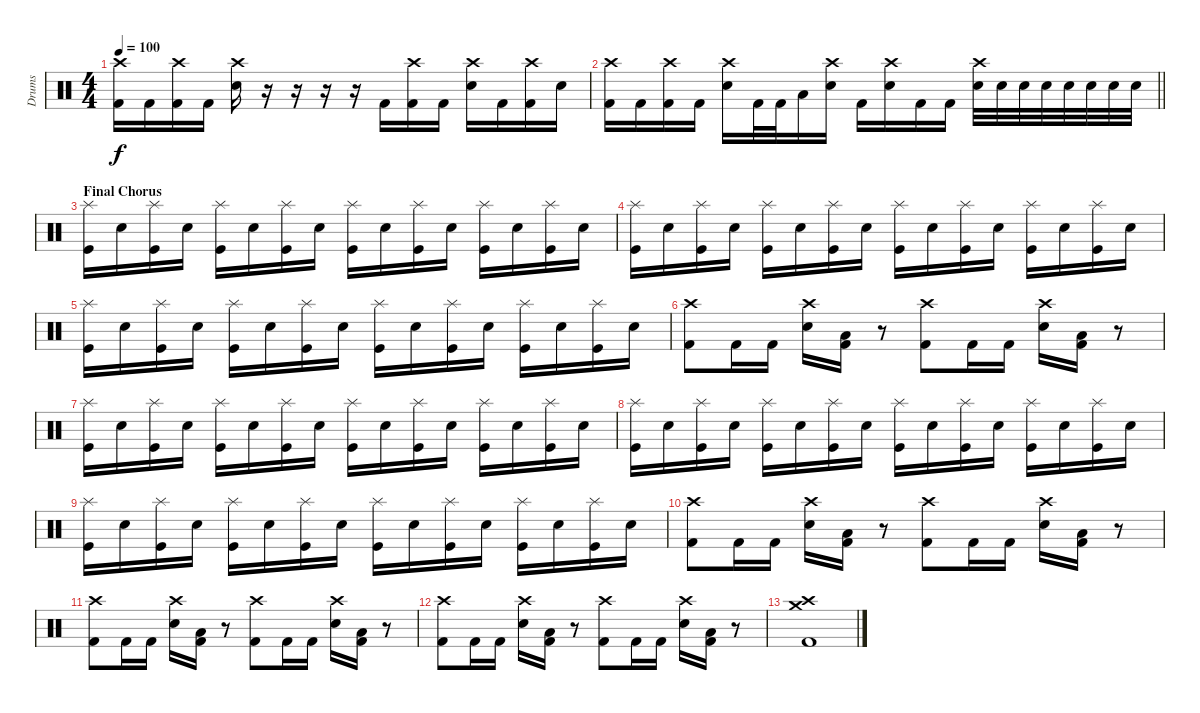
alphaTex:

\track ("Drums" "Drums") {instrument percussion}
\staff {score}
\articulation defaults
\ts (4 4)
\tempo 100
\clef neutral
\ks c
("Crash high (hit)" "Kick (hit) 2").16{dy f} "Kick (hit) 2".16 ("Crash high (hit)" "Kick (hit) 2").16 "Kick (hit) 2".16 ("Crash high (hit)" "Electric Snare (hit)").16 r.16 r.16 r.16 r.16 "Kick (hit) 2".16 ("Crash high (hit)" "Kick (hit) 2").16 "Kick (hit) 2".16 ("Crash high (hit)" "Electric Snare (hit)").16 "Kick (hit) 2".16 ("Crash high (hit)" "Kick (hit) 2").16 "Electric Snare (hit)".16 |
\barLineRight lightlight
("Crash high (hit)" "Kick (hit) 2").16 "Kick (hit) 2".16 ("Crash high (hit)" "Kick (hit) 2").16 "Kick (hit) 2".16 ("Crash high (hit)" "Electric Snare (hit)").16 "Kick (hit) 2".32 "Kick (hit) 2".32 "Low Floor Tom (hit)".16 ("Crash high (hit)" "Electric Snare (hit)").16 "Kick (hit) 2".16 ("Crash high (hit)" "Electric Snare (hit)").16 "Kick (hit) 2".16 "Kick (hit) 2".16 ("Crash high (hit)" "Electric Snare (hit)").32 "Electric Snare (hit)".32 "Electric Snare (hit)".32 "Electric Snare (hit)".32 "Electric Snare (hit)".32 "Electric Snare (hit)".32 "Electric Snare (hit)".32 "Electric Snare (hit)".32 |
\section ("" "Final Chorus")
("Splash (hit)" "Kick (hit)").16 "Electric Snare (hit)".16 ("Splash (hit)" "Kick (hit)").16 "Electric Snare (hit)".16 ("Splash (hit)" "Kick (hit)").16 "Electric Snare (hit)".16 ("Splash (hit)" "Kick (hit)").16 "Electric Snare (hit)".16 ("Splash (hit)" "Kick (hit)").16 "Electric Snare (hit)".16 ("Splash (hit)" "Kick (hit)").16 "Electric Snare (hit)".16 ("Splash (hit)" "Kick (hit)").16 "Electric Snare (hit)".16 ("Splash (hit)" "Kick (hit)").16 "Electric Snare (hit)".16 |
("Splash (hit)" "Kick (hit)").16 "Electric Snare (hit)".16 ("Splash (hit)" "Kick (hit)").16 "Electric Snare (hit)".16 ("Splash (hit)" "Kick (hit)").16 "Electric Snare (hit)".16 ("Splash (hit)" "Kick (hit)").16 "Electric Snare (hit)".16 ("Splash (hit)" "Kick (hit)").16 "Electric Snare (hit)".16 ("Splash (hit)" "Kick (hit)").16 "Electric Snare (hit)".16 ("Splash (hit)" "Kick (hit)").16 "Electric Snare (hit)".16 ("Splash (hit)" "Kick (hit)").16 "Electric Snare (hit)".16 |
("Splash (hit)" "Kick (hit)").16 "Electric Snare (hit)".16 ("Splash (hit)" "Kick (hit)").16 "Electric Snare (hit)".16 ("Splash (hit)" "Kick (hit)").16 "Electric Snare (hit)".16 ("Splash (hit)" "Kick (hit)").16 "Electric Snare (hit)".16 ("Splash (hit)" "Kick (hit)").16 "Electric Snare (hit)".16 ("Splash (hit)" "Kick (hit)").16 "Electric Snare (hit)".16 ("Splash (hit)" "Kick (hit)").16 "Electric Snare (hit)".16 ("Splash (hit)" "Kick (hit)").16 "Electric Snare (hit)".16 |
("Crash high (hit)" "Kick (hit) 2").8 "Kick (hit) 2".16 "Kick (hit) 2".16 ("Crash high (hit)" "Electric Snare (hit)").16 ("Low Tom (hit)" "Kick (hit) 2").16 r.8 ("Crash high (hit)" "Kick (hit) 2").8 "Kick (hit) 2".16 "Kick (hit) 2".16 ("Crash high (hit)" "Electric Snare (hit)").16 ("Low Tom (hit)" "Kick (hit) 2").16 r.8 |
("Splash (hit)" "Kick (hit)").16 "Electric Snare (hit)".16 ("Splash (hit)" "Kick (hit)").16 "Electric Snare (hit)".16 ("Splash (hit)" "Kick (hit)").16 "Electric Snare (hit)".16 ("Splash (hit)" "Kick (hit)").16 "Electric Snare (hit)".16 ("Splash (hit)" "Kick (hit)").16 "Electric Snare (hit)".16 ("Splash (hit)" "Kick (hit)").16 "Electric Snare (hit)".16 ("Splash (hit)" "Kick (hit)").16 "Electric Snare (hit)".16 ("Splash (hit)" "Kick (hit)").16 "Electric Snare (hit)".16 |
("Splash (hit)" "Kick (hit)").16 "Electric Snare (hit)".16 ("Splash (hit)" "Kick (hit)").16 "Electric Snare (hit)".16 ("Splash (hit)" "Kick (hit)").16 "Electric Snare (hit)".16 ("Splash (hit)" "Kick (hit)").16 "Electric Snare (hit)".16 ("Splash (hit)" "Kick (hit)").16 "Electric Snare (hit)".16 ("Splash (hit)" "Kick (hit)").16 "Electric Snare (hit)".16 ("Splash (hit)" "Kick (hit)").16 "Electric Snare (hit)".16 ("Splash (hit)" "Kick (hit)").16 "Electric Snare (hit)".16 |
("Splash (hit)" "Kick (hit)").16 "Electric Snare (hit)".16 ("Splash (hit)" "Kick (hit)").16 "Electric Snare (hit)".16 ("Splash (hit)" "Kick (hit)").16 "Electric Snare (hit)".16 ("Splash (hit)" "Kick (hit)").16 "Electric Snare (hit)".16 ("Splash (hit)" "Kick (hit)").16 "Electric Snare (hit)".16 ("Splash (hit)" "Kick (hit)").16 "Electric Snare (hit)".16 ("Splash (hit)" "Kick (hit)").16 "Electric Snare (hit)".16 ("Splash (hit)" "Kick (hit)").16 "Electric Snare (hit)".16 |
("Crash high (hit)" "Kick (hit) 2").8 "Kick (hit) 2".16 "Kick (hit) 2".16 ("Crash high (hit)" "Electric Snare (hit)").16 ("Low Tom (hit)" "Kick (hit) 2").16 r.8 ("Crash high (hit)" "Kick (hit) 2").8 "Kick (hit) 2".16 "Kick (hit) 2".16 ("Crash high (hit)" "Electric Snare (hit)").16 ("Low Tom (hit)" "Kick (hit) 2").16 r.8 |
("Crash high (hit)" "Kick (hit) 2").8 "Kick (hit) 2".16 "Kick (hit) 2".16 ("Crash high (hit)" "Electric Snare (hit)").16 ("Low Tom (hit)" "Kick (hit) 2").16 r.8 ("Crash high (hit)" "Kick (hit) 2").8 "Kick (hit) 2".16 "Kick (hit) 2".16 ("Crash high (hit)" "Electric Snare (hit)").16 ("Low Tom (hit)" "Kick (hit) 2").16 r.8 |
("Crash high (hit)" "Kick (hit) 2").8 "Kick (hit) 2".16 "Kick (hit) 2".16 ("Crash high (hit)" "Electric Snare (hit)").16 ("Low Tom (hit)" "Kick (hit) 2").16 r.8 ("Crash high (hit)" "Kick (hit) 2").8 "Kick (hit) 2".16 "Kick (hit) 2".16 ("Crash high (hit)" "Electric Snare (hit)").16 ("Low Tom (hit)" "Kick (hit) 2").16 r.8 |
("Crash high (hit)" "Crash medium (hit)" "Kick (hit) 2").1
